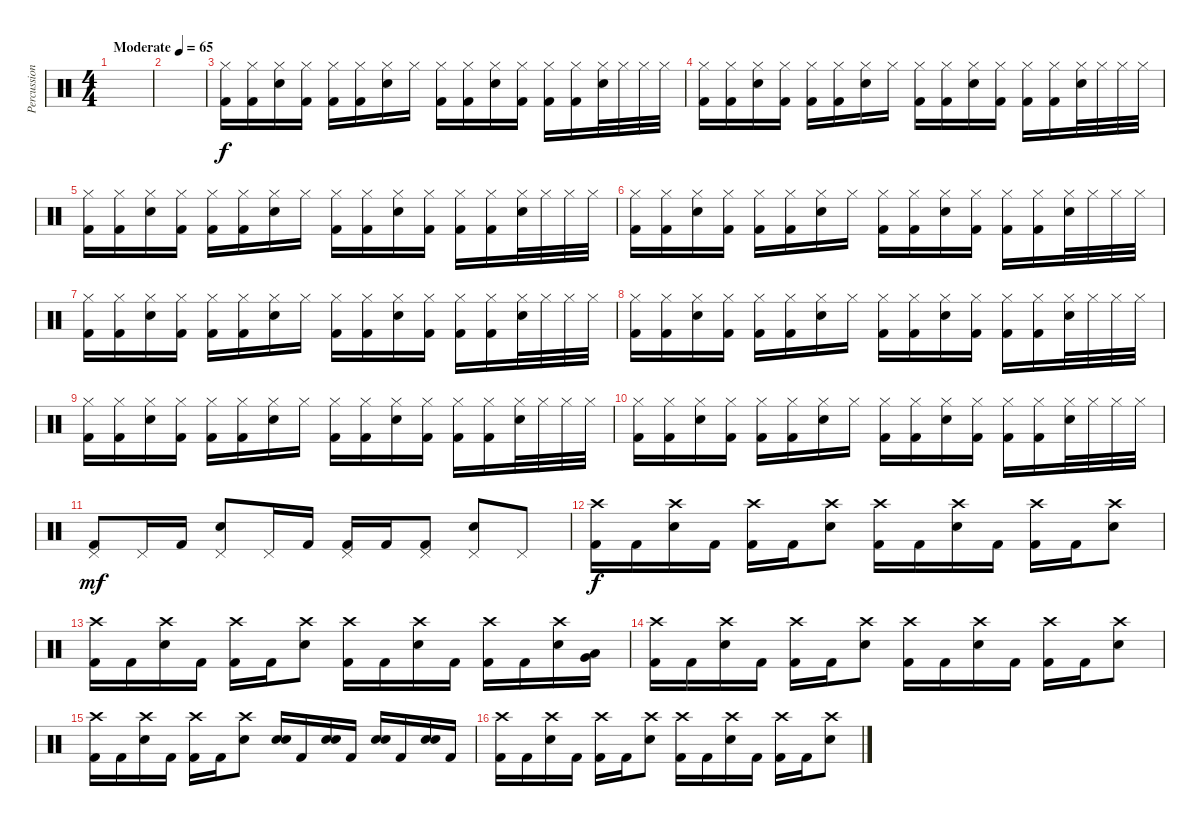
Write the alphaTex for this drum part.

\track ("Percussion" "Percussion") {instrument percussion}
\staff {score}
\articulation defaults
\ts (4 4)
\tempo (65 "Moderate")
\clef neutral
\ks c
|
|
("Hi-Hat (closed)" "Kick (hit) 2").16 ("Hi-Hat (closed)" "Kick (hit) 2").16 ("Hi-Hat (closed)" "Snare (hit) 2").16 ("Hi-Hat (closed)" "Kick (hit) 2").16 ("Hi-Hat (closed)" "Kick (hit) 2").16 ("Hi-Hat (closed)" "Kick (hit) 2").16 ("Hi-Hat (closed)" "Snare (hit) 2").16 "Hi-Hat (closed)".16 ("Hi-Hat (closed)" "Kick (hit) 2").16 ("Hi-Hat (closed)" "Kick (hit) 2").16 ("Hi-Hat (closed)" "Snare (hit) 2").16 ("Hi-Hat (closed)" "Kick (hit) 2").16 ("Hi-Hat (closed)" "Kick (hit) 2").16 ("Hi-Hat (closed)" "Kick (hit) 2").16 ("Hi-Hat (closed)" "Snare (hit) 2").32 "Hi-Hat (closed)".32 "Hi-Hat (closed)".32 "Hi-Hat (closed)".32 |
("Hi-Hat (closed)" "Kick (hit) 2").16 ("Hi-Hat (closed)" "Kick (hit) 2").16 ("Hi-Hat (closed)" "Snare (hit) 2").16 ("Hi-Hat (closed)" "Kick (hit) 2").16 ("Hi-Hat (closed)" "Kick (hit) 2").16 ("Hi-Hat (closed)" "Kick (hit) 2").16 ("Hi-Hat (closed)" "Snare (hit) 2").16 "Hi-Hat (closed)".16 ("Hi-Hat (closed)" "Kick (hit) 2").16 ("Hi-Hat (closed)" "Kick (hit) 2").16 ("Hi-Hat (closed)" "Snare (hit) 2").16 ("Hi-Hat (closed)" "Kick (hit) 2").16 ("Hi-Hat (closed)" "Kick (hit) 2").16 ("Hi-Hat (closed)" "Kick (hit) 2").16 ("Hi-Hat (closed)" "Snare (hit) 2").32 "Hi-Hat (closed)".32 "Hi-Hat (closed)".32 "Hi-Hat (closed)".32 |
("Hi-Hat (closed)" "Kick (hit) 2").16 ("Hi-Hat (closed)" "Kick (hit) 2").16 ("Hi-Hat (closed)" "Snare (hit) 2").16 ("Hi-Hat (closed)" "Kick (hit) 2").16 ("Hi-Hat (closed)" "Kick (hit) 2").16 ("Hi-Hat (closed)" "Kick (hit) 2").16 ("Hi-Hat (closed)" "Snare (hit) 2").16 "Hi-Hat (closed)".16 ("Hi-Hat (closed)" "Kick (hit) 2").16 ("Hi-Hat (closed)" "Kick (hit) 2").16 ("Hi-Hat (closed)" "Snare (hit) 2").16 ("Hi-Hat (closed)" "Kick (hit) 2").16 ("Hi-Hat (closed)" "Kick (hit) 2").16 ("Hi-Hat (closed)" "Kick (hit) 2").16 ("Hi-Hat (closed)" "Snare (hit) 2").32 "Hi-Hat (closed)".32 "Hi-Hat (closed)".32 "Hi-Hat (closed)".32 |
("Hi-Hat (closed)" "Kick (hit) 2").16 ("Hi-Hat (closed)" "Kick (hit) 2").16 ("Hi-Hat (closed)" "Snare (hit) 2").16 ("Hi-Hat (closed)" "Kick (hit) 2").16 ("Hi-Hat (closed)" "Kick (hit) 2").16 ("Hi-Hat (closed)" "Kick (hit) 2").16 ("Hi-Hat (closed)" "Snare (hit) 2").16 "Hi-Hat (closed)".16 ("Hi-Hat (closed)" "Kick (hit) 2").16 ("Hi-Hat (closed)" "Kick (hit) 2").16 ("Hi-Hat (closed)" "Snare (hit) 2").16 ("Hi-Hat (closed)" "Kick (hit) 2").16 ("Hi-Hat (closed)" "Kick (hit) 2").16 ("Hi-Hat (closed)" "Kick (hit) 2").16 ("Hi-Hat (closed)" "Snare (hit) 2").32 "Hi-Hat (closed)".32 "Hi-Hat (closed)".32 "Hi-Hat (closed)".32 |
("Hi-Hat (closed)" "Kick (hit) 2").16 ("Hi-Hat (closed)" "Kick (hit) 2").16 ("Hi-Hat (closed)" "Snare (hit) 2").16 ("Hi-Hat (closed)" "Kick (hit) 2").16 ("Hi-Hat (closed)" "Kick (hit) 2").16 ("Hi-Hat (closed)" "Kick (hit) 2").16 ("Hi-Hat (closed)" "Snare (hit) 2").16 "Hi-Hat (closed)".16 ("Hi-Hat (closed)" "Kick (hit) 2").16 ("Hi-Hat (closed)" "Kick (hit) 2").16 ("Hi-Hat (closed)" "Snare (hit) 2").16 ("Hi-Hat (closed)" "Kick (hit) 2").16 ("Hi-Hat (closed)" "Kick (hit) 2").16 ("Hi-Hat (closed)" "Kick (hit) 2").16 ("Hi-Hat (closed)" "Snare (hit) 2").32 "Hi-Hat (closed)".32 "Hi-Hat (closed)".32 "Hi-Hat (closed)".32 |
("Hi-Hat (closed)" "Kick (hit) 2").16 ("Hi-Hat (closed)" "Kick (hit) 2").16 ("Hi-Hat (closed)" "Snare (hit) 2").16 ("Hi-Hat (closed)" "Kick (hit) 2").16 ("Hi-Hat (closed)" "Kick (hit) 2").16 ("Hi-Hat (closed)" "Kick (hit) 2").16 ("Hi-Hat (closed)" "Snare (hit) 2").16 "Hi-Hat (closed)".16 ("Hi-Hat (closed)" "Kick (hit) 2").16 ("Hi-Hat (closed)" "Kick (hit) 2").16 ("Hi-Hat (closed)" "Snare (hit) 2").16 ("Hi-Hat (closed)" "Kick (hit) 2").16 ("Hi-Hat (closed)" "Kick (hit) 2").16 ("Hi-Hat (closed)" "Kick (hit) 2").16 ("Hi-Hat (closed)" "Snare (hit) 2").32 "Hi-Hat (closed)".32 "Hi-Hat (closed)".32 "Hi-Hat (closed)".32 |
("Hi-Hat (closed)" "Kick (hit) 2").16 ("Hi-Hat (closed)" "Kick (hit) 2").16 ("Hi-Hat (closed)" "Snare (hit) 2").16 ("Hi-Hat (closed)" "Kick (hit) 2").16 ("Hi-Hat (closed)" "Kick (hit) 2").16 ("Hi-Hat (closed)" "Kick (hit) 2").16 ("Hi-Hat (closed)" "Snare (hit) 2").16 "Hi-Hat (closed)".16 ("Hi-Hat (closed)" "Kick (hit) 2").16 ("Hi-Hat (closed)" "Kick (hit) 2").16 ("Hi-Hat (closed)" "Snare (hit) 2").16 ("Hi-Hat (closed)" "Kick (hit) 2").16 ("Hi-Hat (closed)" "Kick (hit) 2").16 ("Hi-Hat (closed)" "Kick (hit) 2").16 ("Hi-Hat (closed)" "Snare (hit) 2").32 "Hi-Hat (closed)".32 "Hi-Hat (closed)".32 "Hi-Hat (closed)".32 |
("Hi-Hat (closed)" "Kick (hit) 2").16 ("Hi-Hat (closed)" "Kick (hit) 2").16 ("Hi-Hat (closed)" "Snare (hit) 2").16 ("Hi-Hat (closed)" "Kick (hit) 2").16 ("Hi-Hat (closed)" "Kick (hit) 2").16 ("Hi-Hat (closed)" "Kick (hit) 2").16 ("Hi-Hat (closed)" "Snare (hit) 2").16 "Hi-Hat (closed)".16 ("Hi-Hat (closed)" "Kick (hit) 2").16 ("Hi-Hat (closed)" "Kick (hit) 2").16 ("Hi-Hat (closed)" "Snare (hit) 2").16 ("Hi-Hat (closed)" "Kick (hit) 2").16 ("Hi-Hat (closed)" "Kick (hit) 2").16 ("Hi-Hat (closed)" "Kick (hit) 2").16 ("Hi-Hat (closed)" "Snare (hit) 2").32 "Hi-Hat (closed)".32 "Hi-Hat (closed)".32 "Hi-Hat (closed)".32 |
("Pedal Hi-Hat (hit)" "Kick (hit) 2").8{dy mf volume 8} "Pedal Hi-Hat (hit)".16 "Kick (hit) 2".16 ("Pedal Hi-Hat (hit)" "Snare (hit) 2").8 "Pedal Hi-Hat (hit)".16 "Kick (hit) 2".16 ("Pedal Hi-Hat (hit)" "Kick (hit) 2").16 "Kick (hit) 2".16 ("Pedal Hi-Hat (hit)" "Kick (hit) 2").8 ("Pedal Hi-Hat (hit)" "Snare (hit) 2").8 "Pedal Hi-Hat (hit)".8 |
("Crash high (hit)" "Kick (hit) 2").16{dy f volume 13} "Kick (hit) 2".16 ("Crash high (hit)" "Snare (hit) 2").16 "Kick (hit) 2".16 ("Crash high (hit)" "Kick (hit) 2").16 "Kick (hit) 2".16 ("Crash high (hit)" "Snare (hit) 2").8 ("Crash high (hit)" "Kick (hit) 2").16 "Kick (hit) 2".16 ("Crash high (hit)" "Snare (hit) 2").16 "Kick (hit) 2".16 ("Crash high (hit)" "Kick (hit) 2").16 "Kick (hit) 2".16 ("Crash high (hit)" "Snare (hit) 2").8 |
("Crash high (hit)" "Kick (hit) 2").16 "Kick (hit) 2".16 ("Crash high (hit)" "Snare (hit) 2").16 "Kick (hit) 2".16 ("Crash high (hit)" "Kick (hit) 2").16 "Kick (hit) 2".16 ("Crash high (hit)" "Snare (hit) 2").8 ("Crash high (hit)" "Kick (hit) 2").16 "Kick (hit) 2".16 ("Crash high (hit)" "Snare (hit) 2").16 "Kick (hit) 2".16 ("Crash high (hit)" "Kick (hit) 2").16 "Kick (hit) 2".16 ("Crash high (hit)" "Snare (hit) 2").16 ("Low Tom (hit)" "Very Low Tom (hit)").16 |
("Crash high (hit)" "Kick (hit) 2").16 "Kick (hit) 2".16 ("Crash high (hit)" "Snare (hit) 2").16 "Kick (hit) 2".16 ("Crash high (hit)" "Kick (hit) 2").16 "Kick (hit) 2".16 ("Crash high (hit)" "Snare (hit) 2").8 ("Crash high (hit)" "Kick (hit) 2").16 "Kick (hit) 2".16 ("Crash high (hit)" "Snare (hit) 2").16 "Kick (hit) 2".16 ("Crash high (hit)" "Kick (hit) 2").16 "Kick (hit) 2".16 ("Crash high (hit)" "Snare (hit) 2").8 |
("Crash high (hit)" "Kick (hit) 2").16 "Kick (hit) 2".16 ("Crash high (hit)" "Snare (hit) 2").16 "Kick (hit) 2".16 ("Crash high (hit)" "Kick (hit) 2").16 "Kick (hit) 2".16 ("Crash high (hit)" "Snare (hit) 2").8 ("Snare (hit) 2" "Snare (hit) 2").16{bd 240} "Kick (hit) 2".16 ("Snare (hit) 2" "Snare (hit) 2").16{bd 240} "Kick (hit) 2".16 ("Snare (hit) 2" "Snare (hit) 2").16{bd 240} "Kick (hit) 2".16 ("Snare (hit) 2" "Snare (hit) 2").16{bd 240} "Kick (hit) 2".16 |
("Crash high (hit)" "Kick (hit) 2").16{volume 13} "Kick (hit) 2".16 ("Crash high (hit)" "Snare (hit) 2").16 "Kick (hit) 2".16 ("Crash high (hit)" "Kick (hit) 2").16 "Kick (hit) 2".16 ("Crash high (hit)" "Snare (hit) 2").8 ("Crash high (hit)" "Kick (hit) 2").16 "Kick (hit) 2".16 ("Crash high (hit)" "Snare (hit) 2").16 "Kick (hit) 2".16 ("Crash high (hit)" "Kick (hit) 2").16 "Kick (hit) 2".16 ("Crash high (hit)" "Snare (hit) 2").8
